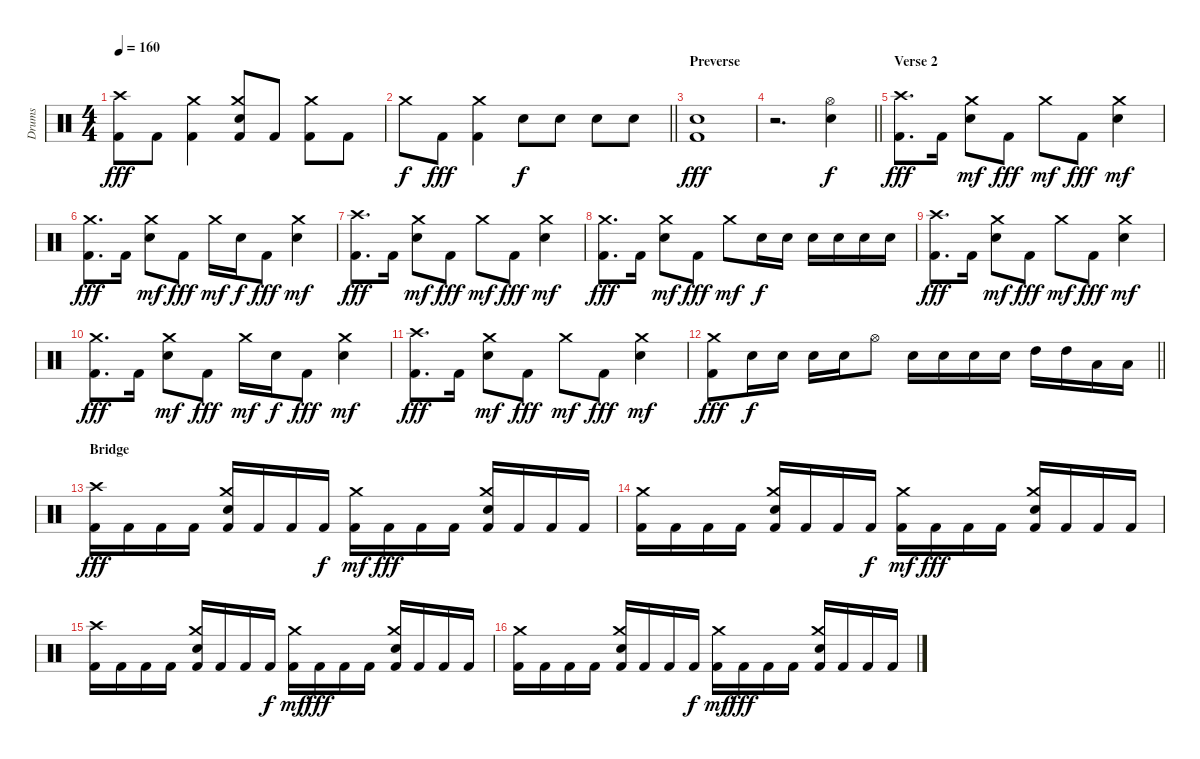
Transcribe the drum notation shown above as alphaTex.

\track ("Drums" "Drums") {instrument percussion}
\staff {score}
\articulation defaults
\ts (4 4)
\tempo 160
\clef neutral
\ks c
("Crash high (hit)" "Kick (hit) 2").8{dy fff} "Kick (hit) 2".8 ("Crash medium (hit)" "Kick (hit) 2").4 ("Crash medium (hit)" "Snare (hit) 2" "Kick (hit) 2").8 "Kick (hit) 2".8 ("Crash medium (hit)" "Kick (hit) 2").8 "Kick (hit) 2".8 |
\barLineRight lightlight "Crash medium (hit)".8{dy f} "Kick (hit) 2".8{dy fff}
("Crash medium (hit)" "Kick (hit) 2").4 "Snare (hit) 2".8{dy f} "Snare (hit) 2".8 "Snare (hit) 2".8 "Snare (hit) 2".8 |
\section ("" "Preverse")
("Snare (hit) 2" "Kick (hit) 2").1{dy fff} |
\barLineRight lightlight
r.2{d} ("Hi-Hat (open)" "Snare (hit) 2").4{dy f} |
\section ("" "Verse 2")
("Crash high (hit)" "Kick (hit) 2").8{d dy fff} "Kick (hit) 2".16 ("Crash medium (hit)" "Snare (hit) 2").8{dy mf} "Kick (hit) 2".8{dy fff} "Crash medium (hit)".8{dy mf} "Kick (hit) 2".8{dy fff} ("Crash medium (hit)" "Snare (hit) 2").4{dy mf} |
("Crash medium (hit)" "Kick (hit) 2").8{d dy fff} "Kick (hit) 2".16 ("Crash medium (hit)" "Snare (hit) 2").8{dy mf} "Kick (hit) 2".8{dy fff} "Crash medium (hit)".16{dy mf} "Snare (hit) 2".16{dy f} "Kick (hit) 2".8{dy fff} ("Crash medium (hit)" "Snare (hit) 2").4{dy mf} |
("Crash high (hit)" "Kick (hit) 2").8{d dy fff} "Kick (hit) 2".16 ("Crash medium (hit)" "Snare (hit) 2").8{dy mf} "Kick (hit) 2".8{dy fff} "Crash medium (hit)".8{dy mf} "Kick (hit) 2".8{dy fff} ("Crash medium (hit)" "Snare (hit) 2").4{dy mf} |
("Crash medium (hit)" "Kick (hit) 2").8{d dy fff} "Kick (hit) 2".16 ("Crash medium (hit)" "Snare (hit) 2").8{dy mf} "Kick (hit) 2".8{dy fff} "Crash medium (hit)".8{dy mf} "Snare (hit) 2".16{dy f} "Snare (hit) 2".16 "Snare (hit) 2".16 "Snare (hit) 2".16 "Snare (hit) 2".16 "Snare (hit) 2".16 |
("Crash high (hit)" "Kick (hit) 2").8{d dy fff} "Kick (hit) 2".16 ("Crash medium (hit)" "Snare (hit) 2").8{dy mf} "Kick (hit) 2".8{dy fff} "Crash medium (hit)".8{dy mf} "Kick (hit) 2".8{dy fff} ("Crash medium (hit)" "Snare (hit) 2").4{dy mf} |
("Crash medium (hit)" "Kick (hit) 2").8{d dy fff} "Kick (hit) 2".16 ("Crash medium (hit)" "Snare (hit) 2").8{dy mf} "Kick (hit) 2".8{dy fff} "Crash medium (hit)".16{dy mf} "Snare (hit) 2".16{dy f} "Kick (hit) 2".8{dy fff} ("Crash medium (hit)" "Snare (hit) 2").4{dy mf} |
("Crash high (hit)" "Kick (hit) 2").8{d dy fff} "Kick (hit) 2".16 ("Crash medium (hit)" "Snare (hit) 2").8{dy mf} "Kick (hit) 2".8{dy fff} "Crash medium (hit)".8{dy mf} "Kick (hit) 2".8{dy fff} ("Crash medium (hit)" "Snare (hit) 2").4{dy mf} |
\barLineRight lightlight
("Crash medium (hit)" "Kick (hit) 2").8{dy fff} "Snare (hit) 2".16{dy f} "Snare (hit) 2".16 "Snare (hit) 2".16 "Snare (hit) 2".16 "Hi-Hat (open)".8 "Snare (hit) 2".16 "Snare (hit) 2".16 "Snare (hit) 2".16 "Snare (hit) 2".16 "High Tom (hit)".16 "High Tom (hit)".16 "Low Tom (hit)".16 "Low Tom (hit)".16 |
\section ("" "Bridge")
("Crash high (hit)" "Kick (hit) 2").16{dy fff} "Kick (hit) 2".16 "Kick (hit) 2".16 "Kick (hit) 2".16 ("Crash medium (hit)" "Snare (hit) 2" "Kick (hit) 2").16 "Kick (hit) 2".16 "Kick (hit) 2".16 "Kick (hit) 2".16{dy f} ("Crash medium (hit)" "Kick (hit) 2").16{dy mf} "Kick (hit) 2".16{dy fff} "Kick (hit) 2".16 "Kick (hit) 2".16 ("Crash medium (hit)" "Snare (hit) 2" "Kick (hit) 2").16 "Kick (hit) 2".16 "Kick (hit) 2".16 "Kick (hit) 2".16 |
("Crash medium (hit)" "Kick (hit) 2").16 "Kick (hit) 2".16 "Kick (hit) 2".16 "Kick (hit) 2".16 ("Crash medium (hit)" "Snare (hit) 2" "Kick (hit) 2").16 "Kick (hit) 2".16 "Kick (hit) 2".16 "Kick (hit) 2".16{dy f} ("Crash medium (hit)" "Kick (hit) 2").16{dy mf} "Kick (hit) 2".16{dy fff} "Kick (hit) 2".16 "Kick (hit) 2".16 ("Crash medium (hit)" "Snare (hit) 2" "Kick (hit) 2").16 "Kick (hit) 2".16 "Kick (hit) 2".16 "Kick (hit) 2".16 |
("Crash high (hit)" "Kick (hit) 2").16 "Kick (hit) 2".16 "Kick (hit) 2".16 "Kick (hit) 2".16 ("Crash medium (hit)" "Snare (hit) 2" "Kick (hit) 2").16 "Kick (hit) 2".16 "Kick (hit) 2".16 "Kick (hit) 2".16{dy f} ("Crash medium (hit)" "Kick (hit) 2").16{dy mf} "Kick (hit) 2".16{dy fff} "Kick (hit) 2".16 "Kick (hit) 2".16 ("Crash medium (hit)" "Snare (hit) 2" "Kick (hit) 2").16 "Kick (hit) 2".16 "Kick (hit) 2".16 "Kick (hit) 2".16 |
("Crash medium (hit)" "Kick (hit) 2").16 "Kick (hit) 2".16 "Kick (hit) 2".16 "Kick (hit) 2".16 ("Crash medium (hit)" "Snare (hit) 2" "Kick (hit) 2").16 "Kick (hit) 2".16 "Kick (hit) 2".16 "Kick (hit) 2".16{dy f} ("Crash medium (hit)" "Kick (hit) 2").16{dy mf} "Kick (hit) 2".16{dy fff} "Kick (hit) 2".16 "Kick (hit) 2".16 ("Crash medium (hit)" "Snare (hit) 2" "Kick (hit) 2").16 "Kick (hit) 2".16 "Kick (hit) 2".16 "Kick (hit) 2".16
